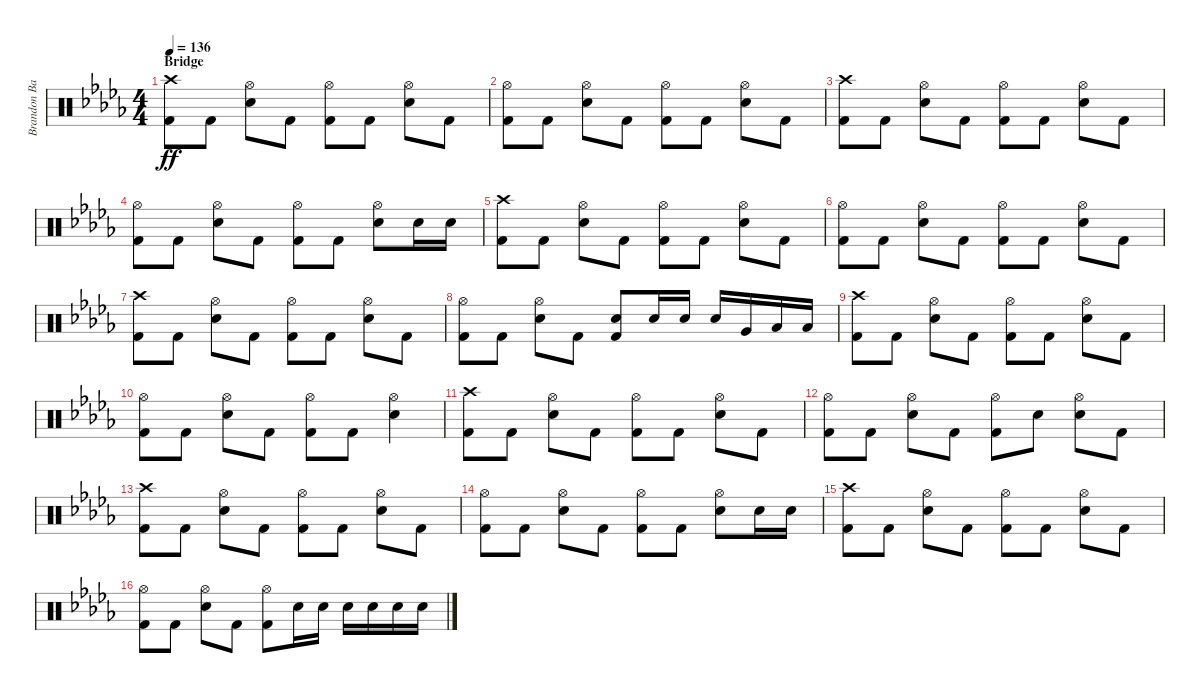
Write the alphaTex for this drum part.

\track ("Brandon Barnes - Drums" "Brandon Ba") {instrument percussion}
\staff {score}
\articulation defaults
\ts (4 4)
\section ("" "Bridge")
\tempo 136
\clef neutral
\ks db
("Crash high (hit)" "Kick (hit) 2").8{dy ff} "Kick (hit) 2".8 ("Snare (hit) 2" "Hi-Hat (open)").8 "Kick (hit) 2".8 ("Kick (hit) 2" "Hi-Hat (open)").8 "Kick (hit) 2".8 ("Snare (hit) 2" "Hi-Hat (open)").8 "Kick (hit) 2".8 |
("Kick (hit) 2" "Hi-Hat (open)").8 "Kick (hit) 2".8 ("Snare (hit) 2" "Hi-Hat (open)").8 "Kick (hit) 2".8 ("Kick (hit) 2" "Hi-Hat (open)").8 "Kick (hit) 2".8 ("Snare (hit) 2" "Hi-Hat (open)").8 "Kick (hit) 2".8 |
("Crash high (hit)" "Kick (hit) 2").8 "Kick (hit) 2".8 ("Snare (hit) 2" "Hi-Hat (open)").8 "Kick (hit) 2".8 ("Kick (hit) 2" "Hi-Hat (open)").8 "Kick (hit) 2".8 ("Snare (hit) 2" "Hi-Hat (open)").8 "Kick (hit) 2".8 |
("Kick (hit) 2" "Hi-Hat (open)").8 "Kick (hit) 2".8 ("Snare (hit) 2" "Hi-Hat (open)").8 "Kick (hit) 2".8 ("Kick (hit) 2" "Hi-Hat (open)").8 "Kick (hit) 2".8 ("Snare (hit) 2" "Hi-Hat (open)").8 "Snare (hit) 2".16 "Snare (hit) 2".16 |
("Crash high (hit)" "Kick (hit) 2").8 "Kick (hit) 2".8 ("Snare (hit) 2" "Hi-Hat (open)").8 "Kick (hit) 2".8 ("Kick (hit) 2" "Hi-Hat (open)").8 "Kick (hit) 2".8 ("Snare (hit) 2" "Hi-Hat (open)").8 "Kick (hit) 2".8 |
("Kick (hit) 2" "Hi-Hat (open)").8 "Kick (hit) 2".8 ("Snare (hit) 2" "Hi-Hat (open)").8 "Kick (hit) 2".8 ("Kick (hit) 2" "Hi-Hat (open)").8 "Kick (hit) 2".8 ("Snare (hit) 2" "Hi-Hat (open)").8 "Kick (hit) 2".8 |
("Crash high (hit)" "Kick (hit) 2").8 "Kick (hit) 2".8 ("Snare (hit) 2" "Hi-Hat (open)").8 "Kick (hit) 2".8 ("Kick (hit) 2" "Hi-Hat (open)").8 "Kick (hit) 2".8 ("Snare (hit) 2" "Hi-Hat (open)").8 "Kick (hit) 2".8 |
("Kick (hit) 2" "Hi-Hat (open)").8 "Kick (hit) 2".8 ("Snare (hit) 2" "Hi-Hat (open)").8 "Kick (hit) 2".8 ("Kick (hit) 2" "Snare (hit) 2").8 "Snare (hit) 2".16 "Snare (hit) 2".16 "Snare (hit) 2".16 "Very Low Tom (hit)".16 "Low Tom (hit)".16 "Low Floor Tom (hit)".16 |
("Crash high (hit)" "Kick (hit) 2").8 "Kick (hit) 2".8 ("Snare (hit) 2" "Hi-Hat (open)").8 "Kick (hit) 2".8 ("Kick (hit) 2" "Hi-Hat (open)").8 "Kick (hit) 2".8 ("Snare (hit) 2" "Hi-Hat (open)").8 "Kick (hit) 2".8 |
("Kick (hit) 2" "Hi-Hat (open)").8 "Kick (hit) 2".8 ("Snare (hit) 2" "Hi-Hat (open)").8 "Kick (hit) 2".8 ("Kick (hit) 2" "Hi-Hat (open)").8 "Kick (hit) 2".8 ("Snare (hit) 2" "Hi-Hat (open)").4 |
("Crash high (hit)" "Kick (hit) 2").8 "Kick (hit) 2".8 ("Snare (hit) 2" "Hi-Hat (open)").8 "Kick (hit) 2".8 ("Kick (hit) 2" "Hi-Hat (open)").8 "Kick (hit) 2".8 ("Snare (hit) 2" "Hi-Hat (open)").8 "Kick (hit) 2".8 |
("Kick (hit) 2" "Hi-Hat (open)").8 "Kick (hit) 2".8 ("Snare (hit) 2" "Hi-Hat (open)").8 "Kick (hit) 2".8 ("Kick (hit) 2" "Hi-Hat (open)").8 "Snare (hit) 2".8 ("Snare (hit) 2" "Hi-Hat (open)").8 "Kick (hit) 2".8 |
("Crash high (hit)" "Kick (hit) 2").8 "Kick (hit) 2".8 ("Snare (hit) 2" "Hi-Hat (open)").8 "Kick (hit) 2".8 ("Kick (hit) 2" "Hi-Hat (open)").8 "Kick (hit) 2".8 ("Snare (hit) 2" "Hi-Hat (open)").8 "Kick (hit) 2".8 |
("Kick (hit) 2" "Hi-Hat (open)").8 "Kick (hit) 2".8 ("Snare (hit) 2" "Hi-Hat (open)").8 "Kick (hit) 2".8 ("Kick (hit) 2" "Hi-Hat (open)").8 "Kick (hit) 2".8 ("Snare (hit) 2" "Hi-Hat (open)").8 "Snare (hit) 2".16 "Snare (hit) 2".16 |
("Crash high (hit)" "Kick (hit) 2").8 "Kick (hit) 2".8 ("Snare (hit) 2" "Hi-Hat (open)").8 "Kick (hit) 2".8 ("Kick (hit) 2" "Hi-Hat (open)").8 "Kick (hit) 2".8 ("Snare (hit) 2" "Hi-Hat (open)").8 "Kick (hit) 2".8 |
("Kick (hit) 2" "Hi-Hat (open)").8 "Kick (hit) 2".8 ("Snare (hit) 2" "Hi-Hat (open)").8 "Kick (hit) 2".8 ("Kick (hit) 2" "Hi-Hat (open)").8 "Snare (hit) 2".16 "Snare (hit) 2".16 "Snare (hit) 2".16 "Snare (hit) 2".16 "Snare (hit) 2".16 "Snare (hit) 2".16
